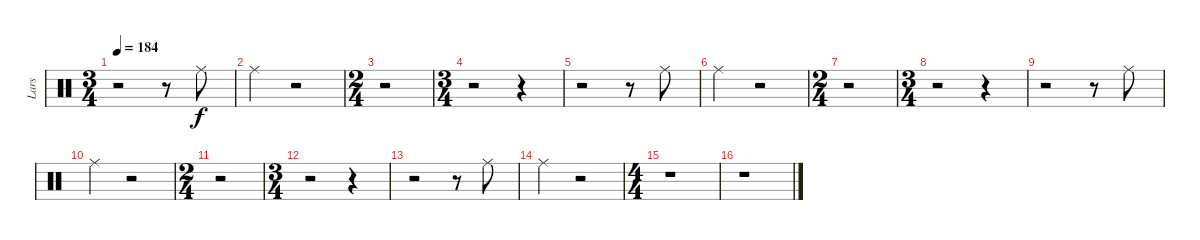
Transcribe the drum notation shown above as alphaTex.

\track ("Lars" "Lars") {instrument percussion}
\staff {score}
\articulation defaults
\ts (3 4)
\tempo 184
\tempo 100
\tempo 184
\clef neutral
\ks c
r.2{dy f} r.8 "Ride (middle)".8 |
"Ride (middle)".4 r.2 |
\ts (2 4)
r.2 |
\ts (3 4)
r.2 r.4 |
r.2 r.8 "Ride (middle)".8 |
"Ride (middle)".4 r.2 |
\ts (2 4)
r.2 |
\ts (3 4)
r.2 r.4 |
r.2 r.8 "Ride (middle)".8 |
"Ride (middle)".4 r.2 |
\ts (2 4)
r.2 |
\ts (3 4)
r.2 r.4 |
r.2 r.8 "Ride (middle)".8 |
"Ride (middle)".4 r.2 |
\ts (4 4)
r.1 |
r.1
